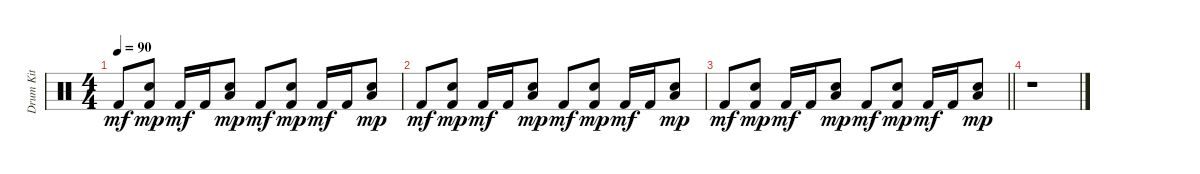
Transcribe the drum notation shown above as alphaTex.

\track ("Drum Kit" "Drum Kit") {instrument percussion}
\staff {score}
\articulation defaults
\ts (4 4)
\tempo 90
\clef neutral
\ks c "Kick (hit) 2".8{dy mf}
("Electric Snare (hit)" "Kick (hit) 2").8{dy mp} "Kick (hit) 2".16{dy mf} "Kick (hit) 2".16 ("Electric Snare (hit)" "Low Tom (hit)").8{bd 60 dy mp} "Kick (hit) 2".8{dy mf} ("Electric Snare (hit)" "Kick (hit) 2").8{dy mp} "Kick (hit) 2".16{dy mf} "Kick (hit) 2".16 ("Electric Snare (hit)" "Low Tom (hit)").8{bd 60 dy mp} |
"Kick (hit) 2".8{dy mf} ("Electric Snare (hit)" "Kick (hit) 2").8{dy mp} "Kick (hit) 2".16{dy mf} "Kick (hit) 2".16 ("Electric Snare (hit)" "Low Tom (hit)").8{bd 60 dy mp} "Kick (hit) 2".8{dy mf} ("Electric Snare (hit)" "Kick (hit) 2").8{dy mp} "Kick (hit) 2".16{dy mf} "Kick (hit) 2".16 ("Electric Snare (hit)" "Low Tom (hit)").8{bd 60 dy mp} |
\barLineRight lightlight "Kick (hit) 2".8{dy mf}
("Electric Snare (hit)" "Kick (hit) 2").8{dy mp} "Kick (hit) 2".16{dy mf} "Kick (hit) 2".16 ("Electric Snare (hit)" "Low Tom (hit)").8{bd 60 dy mp} "Kick (hit) 2".8{dy mf} ("Electric Snare (hit)" "Kick (hit) 2").8{dy mp} "Kick (hit) 2".16{dy mf} "Kick (hit) 2".16 ("Electric Snare (hit)" "Low Tom (hit)").8{bd 60 dy mp} |
r.1
